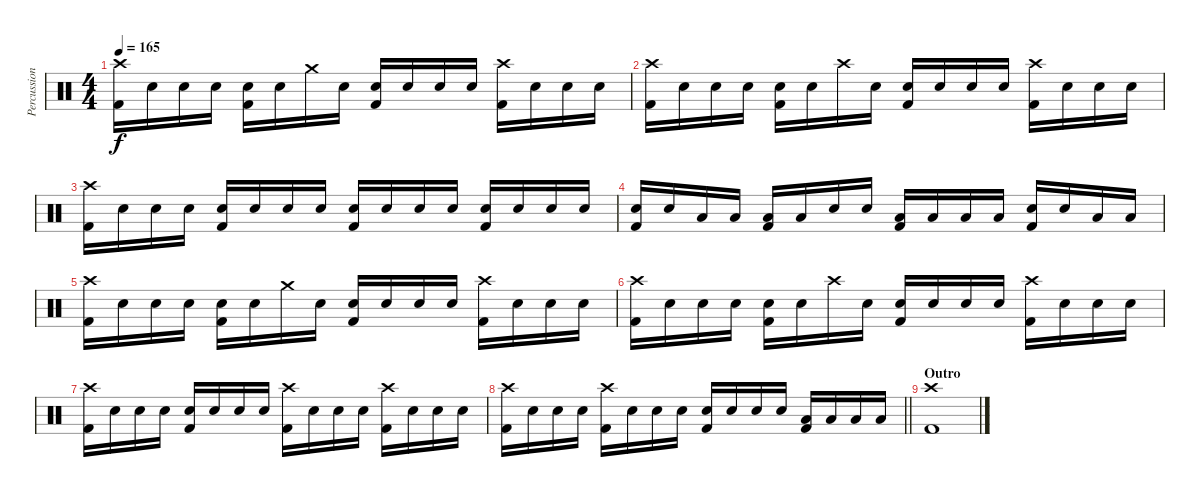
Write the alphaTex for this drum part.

\track ("Percussion" "Percussion") {instrument percussion}
\staff {score}
\articulation defaults
\ts (4 4)
\tempo 165
\clef neutral
\ks c
("Crash high (hit)" "Kick (hit) 2").16{dy f} "Electric Snare (hit)".16 "Electric Snare (hit)".16 "Electric Snare (hit)".16 ("Electric Snare (hit)" "Kick (hit) 2").16 "Electric Snare (hit)".16 "Crash medium (hit)".16 "Electric Snare (hit)".16 ("Electric Snare (hit)" "Kick (hit) 2").16 "Electric Snare (hit)".16 "Electric Snare (hit)".16 "Electric Snare (hit)".16 ("Crash high (hit)" "Kick (hit) 2").16 "Electric Snare (hit)".16 "Electric Snare (hit)".16 "Electric Snare (hit)".16 |
("Crash high (hit)" "Kick (hit) 2").16 "Electric Snare (hit)".16 "Electric Snare (hit)".16 "Electric Snare (hit)".16 ("Electric Snare (hit)" "Kick (hit) 2").16 "Electric Snare (hit)".16 "Crash high (hit)".16 "Electric Snare (hit)".16 ("Electric Snare (hit)" "Kick (hit) 2").16 "Electric Snare (hit)".16 "Electric Snare (hit)".16 "Electric Snare (hit)".16 ("Crash high (hit)" "Kick (hit) 2").16 "Electric Snare (hit)".16 "Electric Snare (hit)".16 "Electric Snare (hit)".16 |
("Crash high (hit)" "Kick (hit) 2").16 "Electric Snare (hit)".16 "Electric Snare (hit)".16 "Electric Snare (hit)".16 ("Electric Snare (hit)" "Kick (hit) 2").16 "Electric Snare (hit)".16 "Electric Snare (hit)".16 "Electric Snare (hit)".16 ("Electric Snare (hit)" "Kick (hit) 2").16 "Electric Snare (hit)".16 "Electric Snare (hit)".16 "Electric Snare (hit)".16 ("Electric Snare (hit)" "Kick (hit) 2").16 "Electric Snare (hit)".16 "Electric Snare (hit)".16 "Electric Snare (hit)".16 |
("Electric Snare (hit)" "Kick (hit) 2").16 "Electric Snare (hit)".16 "Low Tom (hit)".16 "Low Tom (hit)".16 ("Low Tom (hit)" "Kick (hit) 2").16 "Low Tom (hit)".16 "Electric Snare (hit)".16 "Electric Snare (hit)".16 ("Low Tom (hit)" "Kick (hit) 2").16 "Low Tom (hit)".16 "Low Tom (hit)".16 "Low Tom (hit)".16 ("Electric Snare (hit)" "Kick (hit) 2").16 "Electric Snare (hit)".16 "Low Floor Tom (hit)".16 "Low Floor Tom (hit)".16 |
("Crash high (hit)" "Kick (hit) 2").16 "Electric Snare (hit)".16 "Electric Snare (hit)".16 "Electric Snare (hit)".16 ("Electric Snare (hit)" "Kick (hit) 2").16 "Electric Snare (hit)".16 "Crash medium (hit)".16 "Electric Snare (hit)".16 ("Electric Snare (hit)" "Kick (hit) 2").16 "Electric Snare (hit)".16 "Electric Snare (hit)".16 "Electric Snare (hit)".16 ("Crash high (hit)" "Kick (hit) 2").16 "Electric Snare (hit)".16 "Electric Snare (hit)".16 "Electric Snare (hit)".16 |
("Crash high (hit)" "Kick (hit) 2").16 "Electric Snare (hit)".16 "Electric Snare (hit)".16 "Electric Snare (hit)".16 ("Electric Snare (hit)" "Kick (hit) 2").16 "Electric Snare (hit)".16 "Crash high (hit)".16 "Electric Snare (hit)".16 ("Electric Snare (hit)" "Kick (hit) 2").16 "Electric Snare (hit)".16 "Electric Snare (hit)".16 "Electric Snare (hit)".16 ("Crash high (hit)" "Kick (hit) 2").16 "Electric Snare (hit)".16 "Electric Snare (hit)".16 "Electric Snare (hit)".16 |
("Crash high (hit)" "Kick (hit) 2").16 "Electric Snare (hit)".16 "Electric Snare (hit)".16 "Electric Snare (hit)".16 ("Electric Snare (hit)" "Kick (hit) 2").16 "Electric Snare (hit)".16 "Electric Snare (hit)".16 "Electric Snare (hit)".16 ("Crash high (hit)" "Kick (hit) 2").16 "Electric Snare (hit)".16 "Electric Snare (hit)".16 "Electric Snare (hit)".16 ("Crash high (hit)" "Kick (hit) 2").16 "Electric Snare (hit)".16 "Electric Snare (hit)".16 "Electric Snare (hit)".16 |
\barLineRight lightlight
("Crash high (hit)" "Kick (hit) 2").16 "Electric Snare (hit)".16 "Electric Snare (hit)".16 "Electric Snare (hit)".16 ("Crash high (hit)" "Kick (hit) 2").16 "Electric Snare (hit)".16 "Electric Snare (hit)".16 "Electric Snare (hit)".16 ("Electric Snare (hit)" "Kick (hit) 2").16 "Electric Snare (hit)".16 "Electric Snare (hit)".16 "Electric Snare (hit)".16 ("Low Floor Tom (hit)" "Kick (hit) 2").16 "Low Floor Tom (hit)".16 "Low Floor Tom (hit)".16 "Low Floor Tom (hit)".16 |
\section ("" "Outro")
("Crash high (hit)" "Kick (hit) 2").1
